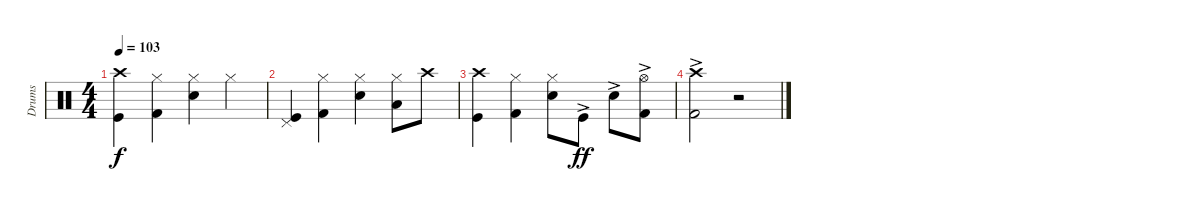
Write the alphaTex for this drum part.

\track ("Drums" "Drums") {instrument percussion}
\staff {score}
\articulation defaults
\ts (4 4)
\tempo 103
\clef neutral
\ks c
("Crash high (hit)" "Kick (hit)").4{dy f} ("Hi-Hat (closed)" "Kick (hit) 2").4 ("Hi-Hat (closed)" "Snare (hit) 2").4 "Hi-Hat (closed)".4 |
("Pedal Hi-Hat (hit)" "Kick (hit)").4 ("Hi-Hat (closed)" "Kick (hit) 2").4 ("Hi-Hat (closed)" "Snare (hit) 2").4 ("Hi-Hat (closed)" "Low Tom (hit)").8 "Crash high (hit)".8 |
("Crash high (hit)" "Kick (hit)").4 ("Hi-Hat (closed)" "Kick (hit) 2").4 ("Hi-Hat (closed)" "Snare (hit) 2").8 "Kick (hit)"{ac}.8{dy ff} "Snare (hit) 2"{ac}.8 ("Hi-Hat (open)" "Kick (hit) 2"{ac}).8 |
("Crash high (hit)" "Kick (hit) 2"{ac}).2 r.2
